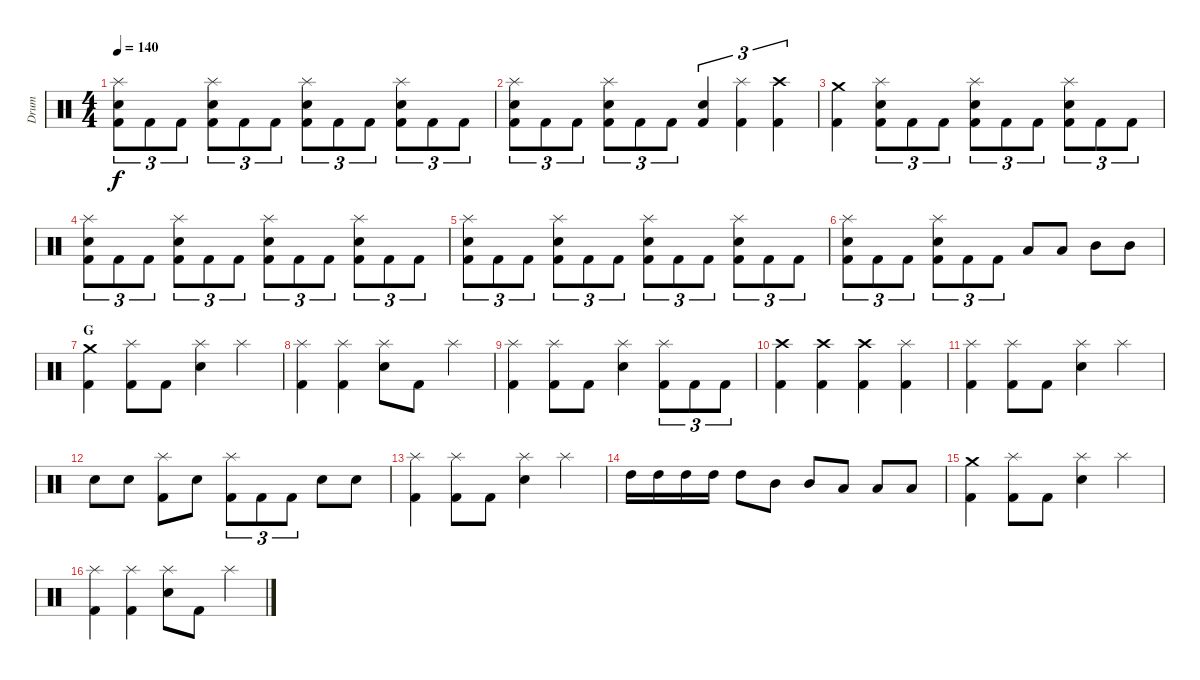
\track ("Drum" "Drum") {instrument percussion}
\staff {score}
\articulation defaults
\ts (4 4)
\tempo 140
\clef neutral
\ks c
("Splash (hit)" "Electric Snare (hit)" "Kick (hit) 2").8{tu (3 2) dy f} "Kick (hit) 2".8{tu (3 2)} "Kick (hit) 2".8{tu (3 2)} ("Splash (hit)" "Electric Snare (hit)" "Kick (hit) 2").8{tu (3 2)} "Kick (hit) 2".8{tu (3 2)} "Kick (hit) 2".8{tu (3 2)} ("Splash (hit)" "Electric Snare (hit)" "Kick (hit) 2").8{tu (3 2)} "Kick (hit) 2".8{tu (3 2)} "Kick (hit) 2".8{tu (3 2)} ("Splash (hit)" "Electric Snare (hit)" "Kick (hit) 2").8{tu (3 2)} "Kick (hit) 2".8{tu (3 2)} "Kick (hit) 2".8{tu (3 2)} |
("Splash (hit)" "Electric Snare (hit)" "Kick (hit) 2").8{tu (3 2)} "Kick (hit) 2".8{tu (3 2)} "Kick (hit) 2".8{tu (3 2)} ("Splash (hit)" "Electric Snare (hit)" "Kick (hit) 2").8{tu (3 2)} "Kick (hit) 2".8{tu (3 2)} "Kick (hit) 2".8{tu (3 2)} ("Electric Snare (hit)" "Kick (hit) 2").4{tu (3 2)} ("Splash (hit)" "Kick (hit) 2").4{tu (3 2)} ("Crash high (hit)" "Kick (hit) 2").4{tu (3 2)} |
("Crash medium (hit)" "Kick (hit) 2").4 ("Splash (hit)" "Electric Snare (hit)" "Kick (hit) 2").8{tu (3 2)} "Kick (hit) 2".8{tu (3 2)} "Kick (hit) 2".8{tu (3 2)} ("Splash (hit)" "Electric Snare (hit)" "Kick (hit) 2").8{tu (3 2)} "Kick (hit) 2".8{tu (3 2)} "Kick (hit) 2".8{tu (3 2)} ("Splash (hit)" "Electric Snare (hit)" "Kick (hit) 2").8{tu (3 2)} "Kick (hit) 2".8{tu (3 2)} "Kick (hit) 2".8{tu (3 2)} |
("Splash (hit)" "Electric Snare (hit)" "Kick (hit) 2").8{tu (3 2)} "Kick (hit) 2".8{tu (3 2)} "Kick (hit) 2".8{tu (3 2)} ("Splash (hit)" "Electric Snare (hit)" "Kick (hit) 2").8{tu (3 2)} "Kick (hit) 2".8{tu (3 2)} "Kick (hit) 2".8{tu (3 2)} ("Splash (hit)" "Electric Snare (hit)" "Kick (hit) 2").8{tu (3 2)} "Kick (hit) 2".8{tu (3 2)} "Kick (hit) 2".8{tu (3 2)} ("Splash (hit)" "Electric Snare (hit)" "Kick (hit) 2").8{tu (3 2)} "Kick (hit) 2".8{tu (3 2)} "Kick (hit) 2".8{tu (3 2)} |
("Splash (hit)" "Electric Snare (hit)" "Kick (hit) 2").8{tu (3 2)} "Kick (hit) 2".8{tu (3 2)} "Kick (hit) 2".8{tu (3 2)} ("Splash (hit)" "Electric Snare (hit)" "Kick (hit) 2").8{tu (3 2)} "Kick (hit) 2".8{tu (3 2)} "Kick (hit) 2".8{tu (3 2)} ("Splash (hit)" "Electric Snare (hit)" "Kick (hit) 2").8{tu (3 2)} "Kick (hit) 2".8{tu (3 2)} "Kick (hit) 2".8{tu (3 2)} ("Splash (hit)" "Electric Snare (hit)" "Kick (hit) 2").8{tu (3 2)} "Kick (hit) 2".8{tu (3 2)} "Kick (hit) 2".8{tu (3 2)} |
("Splash (hit)" "Electric Snare (hit)" "Kick (hit) 2").8{tu (3 2)} "Kick (hit) 2".8{tu (3 2)} "Kick (hit) 2".8{tu (3 2)} ("Splash (hit)" "Electric Snare (hit)" "Kick (hit) 2").8{tu (3 2)} "Kick (hit) 2".8{tu (3 2)} "Kick (hit) 2".8{tu (3 2)} "Low Tom (hit)".8 "Low Tom (hit)".8 "Mid Tom (hit)".8 "Mid Tom (hit)".8 |
\section ("" "G")
("Crash medium (hit)" "Kick (hit) 2").4 ("Splash (hit)" "Kick (hit) 2").8 "Kick (hit) 2".8 ("Splash (hit)" "Electric Snare (hit)").4 "Splash (hit)".4 |
("Splash (hit)" "Kick (hit) 2").4 ("Splash (hit)" "Kick (hit) 2").4 ("Splash (hit)" "Electric Snare (hit)").8 "Kick (hit) 2".8 "Splash (hit)".4 |
("Splash (hit)" "Kick (hit) 2").4 ("Splash (hit)" "Kick (hit) 2").8 "Kick (hit) 2".8 ("Splash (hit)" "Electric Snare (hit)").4 ("Splash (hit)" "Kick (hit) 2").8{tu (3 2)} "Kick (hit) 2".8{tu (3 2)} "Kick (hit) 2".8{tu (3 2)} |
("Crash high (hit)" "Kick (hit) 2").4 ("Crash high (hit)" "Kick (hit) 2").4 ("Crash high (hit)" "Kick (hit) 2").4 ("Splash (hit)" "Kick (hit) 2").4 |
("Splash (hit)" "Kick (hit) 2").4 ("Splash (hit)" "Kick (hit) 2").8 "Kick (hit) 2".8 ("Splash (hit)" "Electric Snare (hit)").4 "Splash (hit)".4 |
"Electric Snare (hit)".8 "Electric Snare (hit)".8 ("Splash (hit)" "Kick (hit) 2").8 "Electric Snare (hit)".8 ("Splash (hit)" "Kick (hit) 2").8{tu (3 2)} "Kick (hit) 2".8{tu (3 2)} "Kick (hit) 2".8{tu (3 2)} "Electric Snare (hit)".8 "Electric Snare (hit)".8 |
("Splash (hit)" "Kick (hit) 2").4 ("Splash (hit)" "Kick (hit) 2").8 "Kick (hit) 2".8 ("Splash (hit)" "Electric Snare (hit)").4 "Splash (hit)".4 |
"High Tom (hit)".16 "High Tom (hit)".16 "High Tom (hit)".16 "High Tom (hit)".16 "High Tom (hit)".8 "Mid Tom (hit)".8 "Mid Tom (hit)".8 "Low Tom (hit)".8 "Low Tom (hit)".8 "Low Tom (hit)".8 |
("Crash medium (hit)" "Kick (hit) 2").4 ("Splash (hit)" "Kick (hit) 2").8 "Kick (hit) 2".8 ("Splash (hit)" "Electric Snare (hit)").4 "Splash (hit)".4 |
("Splash (hit)" "Kick (hit) 2").4 ("Splash (hit)" "Kick (hit) 2").4 ("Splash (hit)" "Electric Snare (hit)").8 "Kick (hit) 2".8 "Splash (hit)".4
